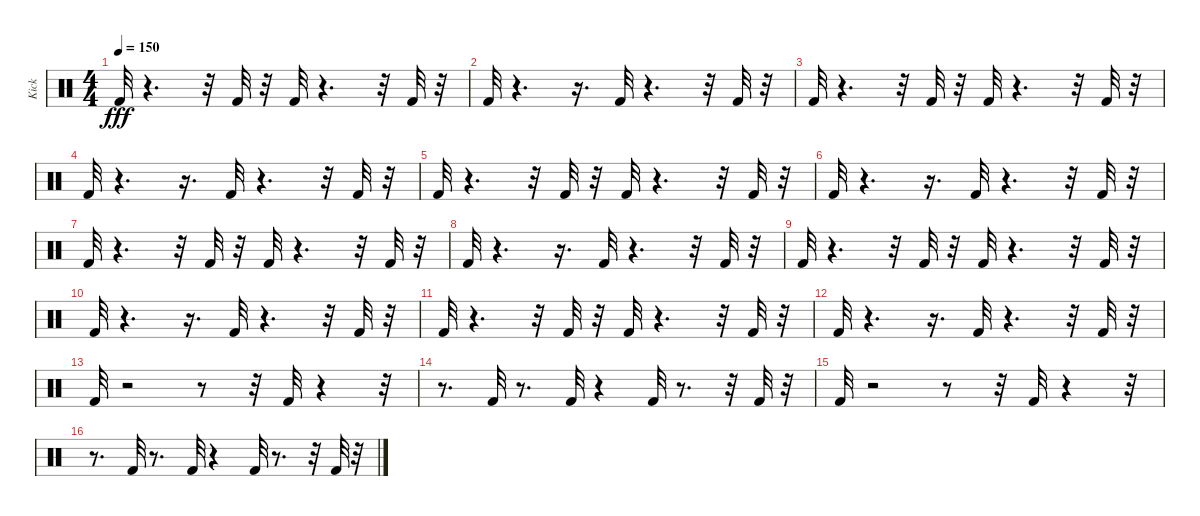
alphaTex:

\track ("Kick" "Kick") {instrument percussion}
\staff {score}
\articulation defaults
\ts (4 4)
\tempo 150
\clef neutral
\ks c "Kick (hit) 2".32{dy fff}
r.4{d} r.32 "Kick (hit) 2".32 r.32 "Kick (hit) 2".32 r.4{d} r.32 "Kick (hit) 2".32 r.32 |
"Kick (hit) 2".32 r.4{d} r.16{d} "Kick (hit) 2".32 r.4{d} r.32 "Kick (hit) 2".32 r.32 |
"Kick (hit) 2".32 r.4{d} r.32 "Kick (hit) 2".32 r.32 "Kick (hit) 2".32 r.4{d} r.32 "Kick (hit) 2".32 r.32 |
"Kick (hit) 2".32 r.4{d} r.16{d} "Kick (hit) 2".32 r.4{d} r.32 "Kick (hit) 2".32 r.32 |
"Kick (hit) 2".32 r.4{d} r.32 "Kick (hit) 2".32 r.32 "Kick (hit) 2".32 r.4{d} r.32 "Kick (hit) 2".32 r.32 |
"Kick (hit) 2".32 r.4{d} r.16{d} "Kick (hit) 2".32 r.4{d} r.32 "Kick (hit) 2".32 r.32 |
"Kick (hit) 2".32 r.4{d} r.32 "Kick (hit) 2".32 r.32 "Kick (hit) 2".32 r.4{d} r.32 "Kick (hit) 2".32 r.32 |
"Kick (hit) 2".32 r.4{d} r.16{d} "Kick (hit) 2".32 r.4{d} r.32 "Kick (hit) 2".32 r.32 |
"Kick (hit) 2".32 r.4{d} r.32 "Kick (hit) 2".32 r.32 "Kick (hit) 2".32 r.4{d} r.32 "Kick (hit) 2".32 r.32 |
"Kick (hit) 2".32 r.4{d} r.16{d} "Kick (hit) 2".32 r.4{d} r.32 "Kick (hit) 2".32 r.32 |
"Kick (hit) 2".32 r.4{d} r.32 "Kick (hit) 2".32 r.32 "Kick (hit) 2".32 r.4{d} r.32 "Kick (hit) 2".32 r.32 |
"Kick (hit) 2".32 r.4{d} r.16{d} "Kick (hit) 2".32 r.4{d} r.32 "Kick (hit) 2".32 r.32 |
"Kick (hit) 2".32 r.2 r.8 r.32 "Kick (hit) 2".32 r.4 r.32 |
r.8{d} "Kick (hit) 2".32 r.8{d} "Kick (hit) 2".32 r.4 "Kick (hit) 2".32 r.8{d} r.32 "Kick (hit) 2".32 r.32 |
"Kick (hit) 2".32 r.2 r.8 r.32 "Kick (hit) 2".32 r.4 r.32 |
r.8{d} "Kick (hit) 2".32 r.8{d} "Kick (hit) 2".32 r.4 "Kick (hit) 2".32 r.8{d} r.32 "Kick (hit) 2".32 r.32
